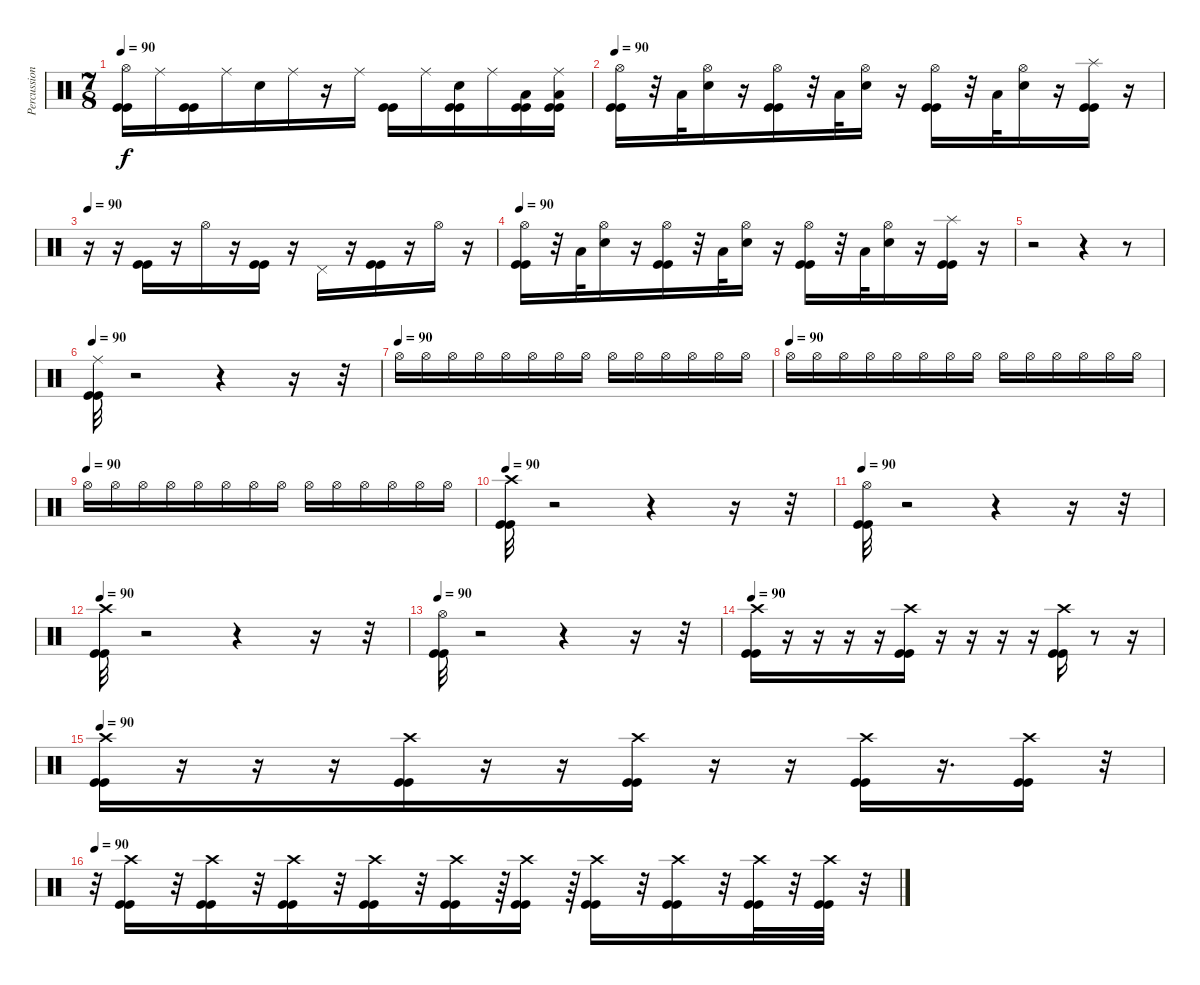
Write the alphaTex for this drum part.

\track ("Percussions" "Percussion") {instrument percussion}
\staff {score}
\articulation defaults
\ts (7 8)
\tempo 90
\clef neutral
\ks c
("Hi-Hat (open)" "Kick (hit)" "Kick (hit)").16{dy f} "Ride (middle)".16 ("Kick (hit)" "Kick (hit)").16 "Ride (middle)".16 "Electric Snare (hit)".16 "Ride (middle)".16 r.16 "Ride (middle)".16 ("Kick (hit)" "Kick (hit)").16 "Ride (middle)".16 ("Electric Snare (hit)" "Kick (hit)" "Kick (hit)").16 "Ride (middle)".16 ("Low Floor Tom (hit)" "Kick (hit)" "Kick (hit)").16 ("Ride (middle)" "Low Floor Tom (hit)" "Kick (hit)" "Kick (hit)").16 |
\tempo 90
("Hi-Hat (open)" "Kick (hit)" "Kick (hit)").16 r.32 "Low Floor Tom (hit)".32 ("Hi-Hat (open)" "Electric Snare (hit)").16 r.16 ("Hi-Hat (open)" "Kick (hit)" "Kick (hit)").16 r.32 "Low Floor Tom (hit)".32 ("Hi-Hat (open)" "Electric Snare (hit)").16 r.16 ("Hi-Hat (open)" "Kick (hit)" "Kick (hit)").16 r.32 "Low Floor Tom (hit)".32 ("Hi-Hat (open)" "Electric Snare (hit)").16 r.16 ("Splash (hit)" "Kick (hit)" "Kick (hit)").16 r.16 |
\tempo 90
r.16 r.16 ("Kick (hit)" "Kick (hit)").16 r.16 "Hi-Hat (open)".16 r.16 ("Kick (hit)" "Kick (hit)").16 r.16 "Pedal Hi-Hat (hit)".16 r.16 ("Kick (hit)" "Kick (hit)").16 r.16 "Hi-Hat (open)".16 r.16 |
\tempo 90
("Hi-Hat (open)" "Kick (hit)" "Kick (hit)").16 r.32 "Low Floor Tom (hit)".32 ("Hi-Hat (open)" "Electric Snare (hit)").16 r.16 ("Hi-Hat (open)" "Kick (hit)" "Kick (hit)").16 r.32 "Low Floor Tom (hit)".32 ("Hi-Hat (open)" "Electric Snare (hit)").16 r.16 ("Hi-Hat (open)" "Kick (hit)" "Kick (hit)").16 r.32 "Low Floor Tom (hit)".32 ("Hi-Hat (open)" "Electric Snare (hit)").16 r.16 ("Splash (hit)" "Kick (hit)" "Kick (hit)").16 r.16 |
r.2 r.4 r.8 |
\tempo 90
("Ride (middle)" "Kick (hit)" "Kick (hit)").32 r.2 r.4 r.16 r.32 |
\tempo (90)
"Hi-Hat (open)".16{volume 9} "Hi-Hat (open)".16 "Hi-Hat (open)".16 "Hi-Hat (open)".16 "Hi-Hat (open)".16 "Hi-Hat (open)".16 "Hi-Hat (open)".16 "Hi-Hat (open)".16 "Hi-Hat (open)".16 "Hi-Hat (open)".16 "Hi-Hat (open)".16 "Hi-Hat (open)".16 "Hi-Hat (open)".16 "Hi-Hat (open)".16 |
\tempo (90)
"Hi-Hat (open)".16{volume 11} "Hi-Hat (open)".16 "Hi-Hat (open)".16 "Hi-Hat (open)".16 "Hi-Hat (open)".16 "Hi-Hat (open)".16 "Hi-Hat (open)".16 "Hi-Hat (open)".16 "Hi-Hat (open)".16 "Hi-Hat (open)".16 "Hi-Hat (open)".16 "Hi-Hat (open)".16 "Hi-Hat (open)".16 "Hi-Hat (open)".16 |
\tempo (90)
"Hi-Hat (open)".16{volume 14} "Hi-Hat (open)".16 "Hi-Hat (open)".16 "Hi-Hat (open)".16 "Hi-Hat (open)".16 "Hi-Hat (open)".16 "Hi-Hat (open)".16 "Hi-Hat (open)".16 "Hi-Hat (open)".16 "Hi-Hat (open)".16 "Hi-Hat (open)".16 "Hi-Hat (open)".16 "Hi-Hat (open)".16 "Hi-Hat (open)".16 |
\tempo 90
("Crash high (hit)" "Kick (hit)" "Kick (hit)").32 r.2 r.4 r.16 r.32 |
\tempo 90
("Hi-Hat (open)" "Kick (hit)" "Kick (hit)").32 r.2 r.4 r.16 r.32 |
\tempo 90
("Crash high (hit)" "Kick (hit)" "Kick (hit)").32 r.2 r.4 r.16 r.32 |
\tempo 90
("Hi-Hat (open)" "Kick (hit)" "Kick (hit)").32 r.2 r.4 r.16 r.32 |
\tempo 90
("Crash high (hit)" "Kick (hit)" "Kick (hit)").16 r.16 r.16 r.16 r.16 ("Crash high (hit)" "Kick (hit)" "Kick (hit)").16 r.16 r.16 r.16 r.16 ("Crash high (hit)" "Kick (hit)" "Kick (hit)").16 r.8 r.16 |
\tempo 90
("Crash high (hit)" "Kick (hit)" "Kick (hit)").16 r.16 r.16 r.16 ("Crash high (hit)" "Kick (hit)" "Kick (hit)").16 r.16 r.16 ("Crash high (hit)" "Kick (hit)" "Kick (hit)").16 r.16 r.16 ("Crash high (hit)" "Kick (hit)" "Kick (hit)").16 r.16{d} ("Crash high (hit)" "Kick (hit)" "Kick (hit)").16 r.32 |
\tempo 90
r.32 ("Crash high (hit)" "Kick (hit)" "Kick (hit)").16 r.32 ("Crash high (hit)" "Kick (hit)" "Kick (hit)").16 r.32 ("Crash high (hit)" "Kick (hit)" "Kick (hit)").16 r.32 ("Crash high (hit)" "Kick (hit)" "Kick (hit)").16 r.32 ("Crash high (hit)" "Kick (hit)" "Kick (hit)").16 r.64 ("Crash high (hit)" "Kick (hit)" "Kick (hit)").16 r.64 ("Crash high (hit)" "Kick (hit)" "Kick (hit)").16 r.32 ("Crash high (hit)" "Kick (hit)" "Kick (hit)").16 r.32 ("Crash high (hit)" "Kick (hit)" "Kick (hit)").32 r.32 ("Crash high (hit)" "Kick (hit)" "Kick (hit)").32 r.32
